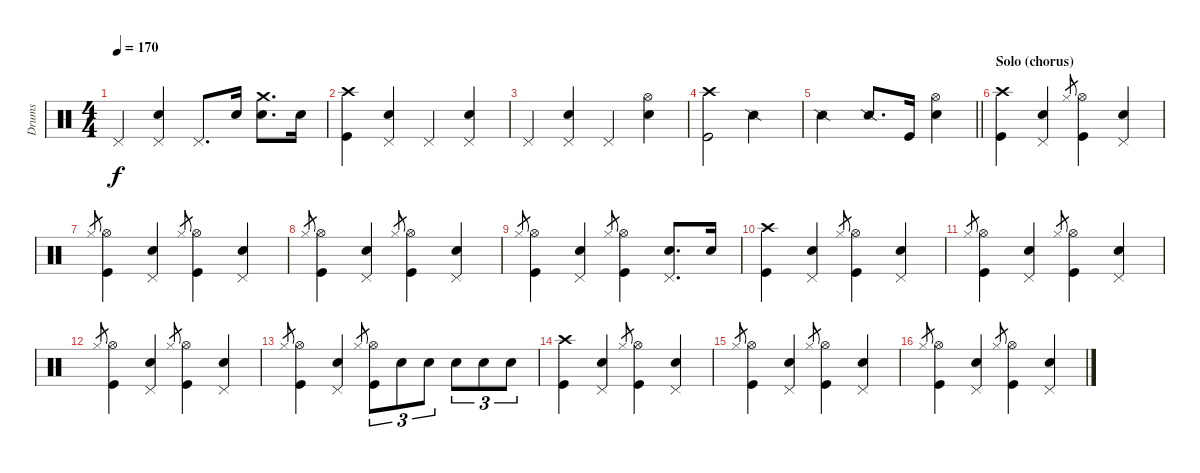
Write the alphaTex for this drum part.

\track ("Drums" "Drums") {instrument percussion}
\staff {score}
\articulation defaults
\ts (4 4)
\tempo 170
\clef neutral
\ks aminor "Pedal Hi-Hat (hit)".4{dy f}
("Electric Snare (hit)" "Pedal Hi-Hat (hit)").4 "Pedal Hi-Hat (hit)".8{d} "Electric Snare (hit)".16 ("Electric Snare (hit)" "Crash medium (hit)").8{d} "Electric Snare (hit)".16 |
("Kick (hit)" "Crash high (hit)").4 ("Electric Snare (hit)" "Pedal Hi-Hat (hit)").4 "Pedal Hi-Hat (hit)".4 ("Electric Snare (hit)" "Pedal Hi-Hat (hit)").4 |
"Pedal Hi-Hat (hit)".4 ("Electric Snare (hit)" "Pedal Hi-Hat (hit)").4 "Pedal Hi-Hat (hit)".4 ("Hi-Hat (open)" "Electric Snare (hit)").4 |
("Kick (hit)" "Crash high (hit)").2 "Snare (side stick) 2".2 |
\barLineRight lightlight "Snare (side stick) 2".2 "Snare (side stick) 2".8{d} "Kick (hit)".16
("Hi-Hat (open)" "Electric Snare (hit)").4 |
\section ("" "Solo (chorus)")
("Kick (hit)" "Crash high (hit)").4 ("Electric Snare (hit)" "Pedal Hi-Hat (hit)").4 "Hi-Hat (closed)".8{gr} ("Kick (hit)" "Hi-Hat (open)").4 ("Electric Snare (hit)" "Pedal Hi-Hat (hit)").4 |
"Hi-Hat (closed)".8{gr} ("Kick (hit)" "Hi-Hat (open)").4 ("Electric Snare (hit)" "Pedal Hi-Hat (hit)").4 "Hi-Hat (closed)".8{gr} ("Kick (hit)" "Hi-Hat (open)").4 ("Electric Snare (hit)" "Pedal Hi-Hat (hit)").4 |
"Hi-Hat (closed)".8{gr} ("Kick (hit)" "Hi-Hat (open)").4 ("Electric Snare (hit)" "Pedal Hi-Hat (hit)").4 "Hi-Hat (closed)".8{gr} ("Kick (hit)" "Hi-Hat (open)").4 ("Electric Snare (hit)" "Pedal Hi-Hat (hit)").4 |
"Hi-Hat (closed)".8{gr} ("Kick (hit)" "Hi-Hat (open)").4 ("Electric Snare (hit)" "Pedal Hi-Hat (hit)").4 "Hi-Hat (closed)".8{gr} ("Kick (hit)" "Hi-Hat (open)").4 ("Electric Snare (hit)" "Pedal Hi-Hat (hit)").8{d} "Electric Snare (hit)".16 |
("Kick (hit)" "Crash high (hit)").4 ("Electric Snare (hit)" "Pedal Hi-Hat (hit)").4 "Hi-Hat (closed)".8{gr} ("Kick (hit)" "Hi-Hat (open)").4 ("Electric Snare (hit)" "Pedal Hi-Hat (hit)").4 |
"Hi-Hat (closed)".8{gr} ("Kick (hit)" "Hi-Hat (open)").4 ("Electric Snare (hit)" "Pedal Hi-Hat (hit)").4 "Hi-Hat (closed)".8{gr} ("Kick (hit)" "Hi-Hat (open)").4 ("Electric Snare (hit)" "Pedal Hi-Hat (hit)").4 |
"Hi-Hat (closed)".8{gr} ("Kick (hit)" "Hi-Hat (open)").4 ("Electric Snare (hit)" "Pedal Hi-Hat (hit)").4 "Hi-Hat (closed)".8{gr} ("Kick (hit)" "Hi-Hat (open)").4 ("Electric Snare (hit)" "Pedal Hi-Hat (hit)").4 |
"Hi-Hat (closed)".8{gr} ("Kick (hit)" "Hi-Hat (open)").4 ("Electric Snare (hit)" "Pedal Hi-Hat (hit)").4 "Hi-Hat (closed)".8{gr} ("Kick (hit)" "Hi-Hat (open)").8{tu (3 2)} "Electric Snare (hit)".8{tu (3 2)} "Electric Snare (hit)".8{tu (3 2)} "Electric Snare (hit)".8{tu (3 2)} "Electric Snare (hit)".8{tu (3 2)} "Electric Snare (hit)".8{tu (3 2)} |
("Kick (hit)" "Crash high (hit)").4 ("Electric Snare (hit)" "Pedal Hi-Hat (hit)").4 "Hi-Hat (closed)".8{gr} ("Kick (hit)" "Hi-Hat (open)").4 ("Electric Snare (hit)" "Pedal Hi-Hat (hit)").4 |
"Hi-Hat (closed)".8{gr} ("Kick (hit)" "Hi-Hat (open)").4 ("Electric Snare (hit)" "Pedal Hi-Hat (hit)").4 "Hi-Hat (closed)".8{gr} ("Kick (hit)" "Hi-Hat (open)").4 ("Electric Snare (hit)" "Pedal Hi-Hat (hit)").4 |
"Hi-Hat (closed)".8{gr} ("Kick (hit)" "Hi-Hat (open)").4 ("Electric Snare (hit)" "Pedal Hi-Hat (hit)").4 "Hi-Hat (closed)".8{gr} ("Kick (hit)" "Hi-Hat (open)").4 ("Electric Snare (hit)" "Pedal Hi-Hat (hit)").4
